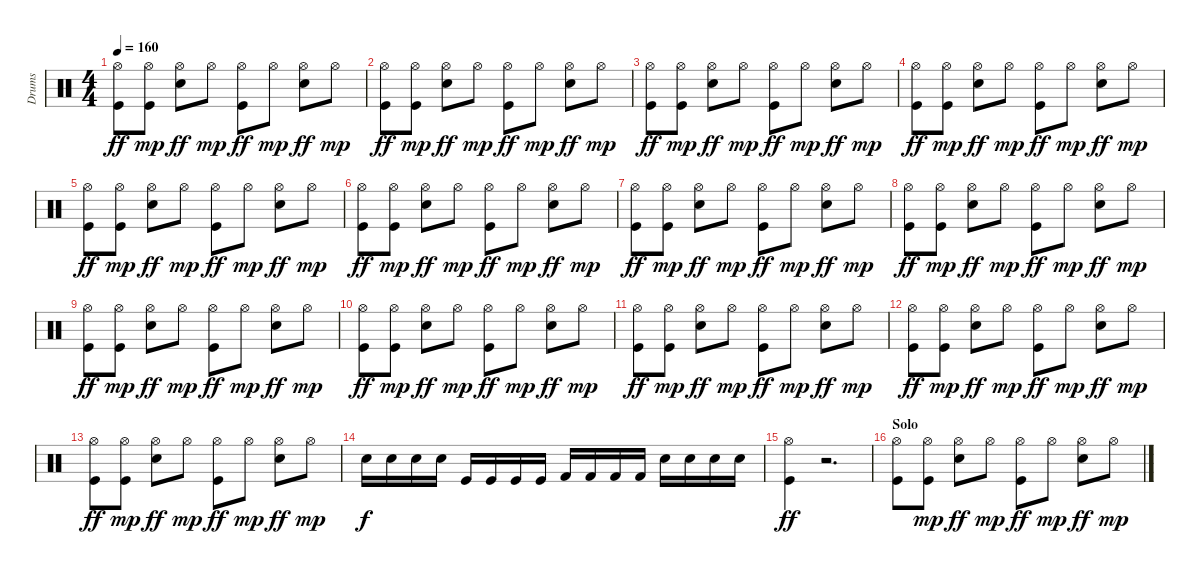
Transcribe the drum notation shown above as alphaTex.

\track ("Drums" "Drums") {instrument percussion}
\staff {score}
\articulation defaults
\ts (4 4)
\tempo 160
\clef neutral
\ks c
("Kick (hit)" "Hi-Hat (open)").8{dy ff} ("Kick (hit)" "Hi-Hat (open)").8{dy mp} ("Electric Snare (hit)" "Hi-Hat (open)").8{dy ff} "Hi-Hat (open)".8{dy mp} ("Kick (hit)" "Hi-Hat (open)").8{dy ff} "Hi-Hat (open)".8{dy mp} ("Electric Snare (hit)" "Hi-Hat (open)").8{dy ff} "Hi-Hat (open)".8{dy mp} |
("Kick (hit)" "Hi-Hat (open)").8{dy ff} ("Kick (hit)" "Hi-Hat (open)").8{dy mp} ("Electric Snare (hit)" "Hi-Hat (open)").8{dy ff} "Hi-Hat (open)".8{dy mp} ("Kick (hit)" "Hi-Hat (open)").8{dy ff} "Hi-Hat (open)".8{dy mp} ("Electric Snare (hit)" "Hi-Hat (open)").8{dy ff} "Hi-Hat (open)".8{dy mp} |
("Kick (hit)" "Hi-Hat (open)").8{dy ff} ("Kick (hit)" "Hi-Hat (open)").8{dy mp} ("Electric Snare (hit)" "Hi-Hat (open)").8{dy ff} "Hi-Hat (open)".8{dy mp} ("Kick (hit)" "Hi-Hat (open)").8{dy ff} "Hi-Hat (open)".8{dy mp} ("Electric Snare (hit)" "Hi-Hat (open)").8{dy ff} "Hi-Hat (open)".8{dy mp} |
("Kick (hit)" "Hi-Hat (open)").8{dy ff} ("Kick (hit)" "Hi-Hat (open)").8{dy mp} ("Electric Snare (hit)" "Hi-Hat (open)").8{dy ff} "Hi-Hat (open)".8{dy mp} ("Kick (hit)" "Hi-Hat (open)").8{dy ff} "Hi-Hat (open)".8{dy mp} ("Electric Snare (hit)" "Hi-Hat (open)").8{dy ff} "Hi-Hat (open)".8{dy mp} |
("Kick (hit)" "Hi-Hat (open)").8{dy ff} ("Kick (hit)" "Hi-Hat (open)").8{dy mp} ("Electric Snare (hit)" "Hi-Hat (open)").8{dy ff} "Hi-Hat (open)".8{dy mp} ("Kick (hit)" "Hi-Hat (open)").8{dy ff} "Hi-Hat (open)".8{dy mp} ("Electric Snare (hit)" "Hi-Hat (open)").8{dy ff} "Hi-Hat (open)".8{dy mp} |
("Kick (hit)" "Hi-Hat (open)").8{dy ff} ("Kick (hit)" "Hi-Hat (open)").8{dy mp} ("Electric Snare (hit)" "Hi-Hat (open)").8{dy ff} "Hi-Hat (open)".8{dy mp} ("Kick (hit)" "Hi-Hat (open)").8{dy ff} "Hi-Hat (open)".8{dy mp} ("Electric Snare (hit)" "Hi-Hat (open)").8{dy ff} "Hi-Hat (open)".8{dy mp} |
("Kick (hit)" "Hi-Hat (open)").8{dy ff} ("Kick (hit)" "Hi-Hat (open)").8{dy mp} ("Electric Snare (hit)" "Hi-Hat (open)").8{dy ff} "Hi-Hat (open)".8{dy mp} ("Kick (hit)" "Hi-Hat (open)").8{dy ff} "Hi-Hat (open)".8{dy mp} ("Electric Snare (hit)" "Hi-Hat (open)").8{dy ff} "Hi-Hat (open)".8{dy mp} |
("Kick (hit)" "Hi-Hat (open)").8{dy ff} ("Kick (hit)" "Hi-Hat (open)").8{dy mp} ("Electric Snare (hit)" "Hi-Hat (open)").8{dy ff} "Hi-Hat (open)".8{dy mp} ("Kick (hit)" "Hi-Hat (open)").8{dy ff} "Hi-Hat (open)".8{dy mp} ("Electric Snare (hit)" "Hi-Hat (open)").8{dy ff} "Hi-Hat (open)".8{dy mp} |
("Kick (hit)" "Hi-Hat (open)").8{dy ff} ("Kick (hit)" "Hi-Hat (open)").8{dy mp} ("Electric Snare (hit)" "Hi-Hat (open)").8{dy ff} "Hi-Hat (open)".8{dy mp} ("Kick (hit)" "Hi-Hat (open)").8{dy ff} "Hi-Hat (open)".8{dy mp} ("Electric Snare (hit)" "Hi-Hat (open)").8{dy ff} "Hi-Hat (open)".8{dy mp} |
("Kick (hit)" "Hi-Hat (open)").8{dy ff} ("Kick (hit)" "Hi-Hat (open)").8{dy mp} ("Electric Snare (hit)" "Hi-Hat (open)").8{dy ff} "Hi-Hat (open)".8{dy mp} ("Kick (hit)" "Hi-Hat (open)").8{dy ff} "Hi-Hat (open)".8{dy mp} ("Electric Snare (hit)" "Hi-Hat (open)").8{dy ff} "Hi-Hat (open)".8{dy mp} |
("Kick (hit)" "Hi-Hat (open)").8{dy ff} ("Kick (hit)" "Hi-Hat (open)").8{dy mp} ("Electric Snare (hit)" "Hi-Hat (open)").8{dy ff} "Hi-Hat (open)".8{dy mp} ("Kick (hit)" "Hi-Hat (open)").8{dy ff} "Hi-Hat (open)".8{dy mp} ("Electric Snare (hit)" "Hi-Hat (open)").8{dy ff} "Hi-Hat (open)".8{dy mp} |
("Kick (hit)" "Hi-Hat (open)").8{dy ff} ("Kick (hit)" "Hi-Hat (open)").8{dy mp} ("Electric Snare (hit)" "Hi-Hat (open)").8{dy ff} "Hi-Hat (open)".8{dy mp} ("Kick (hit)" "Hi-Hat (open)").8{dy ff} "Hi-Hat (open)".8{dy mp} ("Electric Snare (hit)" "Hi-Hat (open)").8{dy ff} "Hi-Hat (open)".8{dy mp} |
("Kick (hit)" "Hi-Hat (open)").8{dy ff} ("Kick (hit)" "Hi-Hat (open)").8{dy mp} ("Electric Snare (hit)" "Hi-Hat (open)").8{dy ff} "Hi-Hat (open)".8{dy mp} ("Kick (hit)" "Hi-Hat (open)").8{dy ff} "Hi-Hat (open)".8{dy mp} ("Electric Snare (hit)" "Hi-Hat (open)").8{dy ff} "Hi-Hat (open)".8{dy mp} |
"Electric Snare (hit)".16{dy f} "Electric Snare (hit)".16 "Electric Snare (hit)".16 "Electric Snare (hit)".16 "Kick (hit)".16 "Kick (hit)".16 "Kick (hit)".16 "Kick (hit)".16 "Kick (hit) 2".16 "Kick (hit) 2".16 "Kick (hit) 2".16 "Kick (hit) 2".16 "Electric Snare (hit)".16 "Electric Snare (hit)".16 "Electric Snare (hit)".16 "Electric Snare (hit)".16 |
("Kick (hit)" "Hi-Hat (open)").4{dy ff} r.2{d} |
\section ("" "Solo")
("Kick (hit)" "Hi-Hat (open)").8 ("Kick (hit)" "Hi-Hat (open)").8{dy mp} ("Electric Snare (hit)" "Hi-Hat (open)").8{dy ff} "Hi-Hat (open)".8{dy mp} ("Kick (hit)" "Hi-Hat (open)").8{dy ff} "Hi-Hat (open)".8{dy mp} ("Electric Snare (hit)" "Hi-Hat (open)").8{dy ff} "Hi-Hat (open)".8{dy mp}
